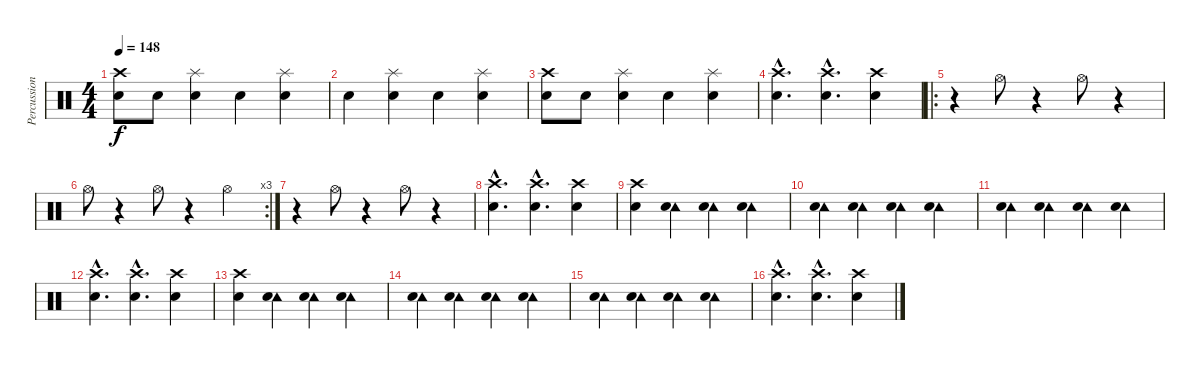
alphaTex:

\track ("Percussions" "Percussion") {instrument percussion}
\staff {score}
\articulation defaults
\ts (4 4)
\tempo 148
\clef neutral
\ks c
("Crash high (hit)" "Snare (hit) 2").8{dy f} "Snare (hit) 2".8 ("Splash (hit)" "Electric Snare (hit)").4 "Snare (hit) 2".4 ("Splash (hit)" "Electric Snare (hit)").4 |
"Snare (hit) 2".4 ("Splash (hit)" "Electric Snare (hit)").4 "Snare (hit) 2".4 ("Splash (hit)" "Electric Snare (hit)").4 |
("Crash high (hit)" "Snare (hit) 2").8 "Snare (hit) 2".8 ("Splash (hit)" "Electric Snare (hit)").4 "Snare (hit) 2".4 ("Splash (hit)" "Electric Snare (hit)").4 |
("Crash high (hit)"{hac} "Snare (hit) 2"{hac}).4{d} ("Crash high (hit)"{hac} "Snare (hit) 2"{hac}).4{d} ("Crash high (hit)" "Snare (hit) 2").4 |
\ro
r.4 "Hi-Hat (open)".8 r.4 "Hi-Hat (open)".8 r.4 |
\rc 3 "Hi-Hat (open)".8
r.4 "Hi-Hat (open)".8 r.4 "Hi-Hat (open)".4 |
r.4 "Hi-Hat (open)".8 r.4 "Hi-Hat (open)".8 r.4 |
("Crash high (hit)"{hac} "Snare (hit) 2"{hac}).4{d} ("Crash high (hit)"{hac} "Snare (hit) 2"{hac}).4{d} ("Crash high (hit)" "Snare (hit) 2").4 |
("Crash high (hit)" "Snare (hit) 2").4 ("Tambourine (hit)" "Electric Snare (hit)").4 ("Tambourine (hit)" "Snare (hit) 2").4 ("Tambourine (hit)" "Electric Snare (hit)").4 |
("Tambourine (hit)" "Snare (hit) 2").4 ("Tambourine (hit)" "Electric Snare (hit)").4 ("Tambourine (hit)" "Snare (hit) 2").4 ("Tambourine (hit)" "Electric Snare (hit)").4 |
("Tambourine (hit)" "Snare (hit) 2").4 ("Tambourine (hit)" "Electric Snare (hit)").4 ("Tambourine (hit)" "Snare (hit) 2").4 ("Tambourine (hit)" "Electric Snare (hit)").4 |
("Crash high (hit)"{hac} "Snare (hit) 2"{hac}).4{d} ("Crash high (hit)"{hac} "Snare (hit) 2"{hac}).4{d} ("Crash high (hit)" "Snare (hit) 2").4 |
("Crash high (hit)" "Snare (hit) 2").4 ("Tambourine (hit)" "Electric Snare (hit)").4 ("Tambourine (hit)" "Snare (hit) 2").4 ("Tambourine (hit)" "Electric Snare (hit)").4 |
("Tambourine (hit)" "Snare (hit) 2").4 ("Tambourine (hit)" "Electric Snare (hit)").4 ("Tambourine (hit)" "Snare (hit) 2").4 ("Tambourine (hit)" "Electric Snare (hit)").4 |
("Tambourine (hit)" "Snare (hit) 2").4 ("Tambourine (hit)" "Electric Snare (hit)").4 ("Tambourine (hit)" "Snare (hit) 2").4 ("Tambourine (hit)" "Electric Snare (hit)").4 |
("Crash high (hit)"{hac} "Snare (hit) 2"{hac}).4{d} ("Crash high (hit)"{hac} "Snare (hit) 2"{hac}).4{d} ("Crash high (hit)" "Snare (hit) 2").4
